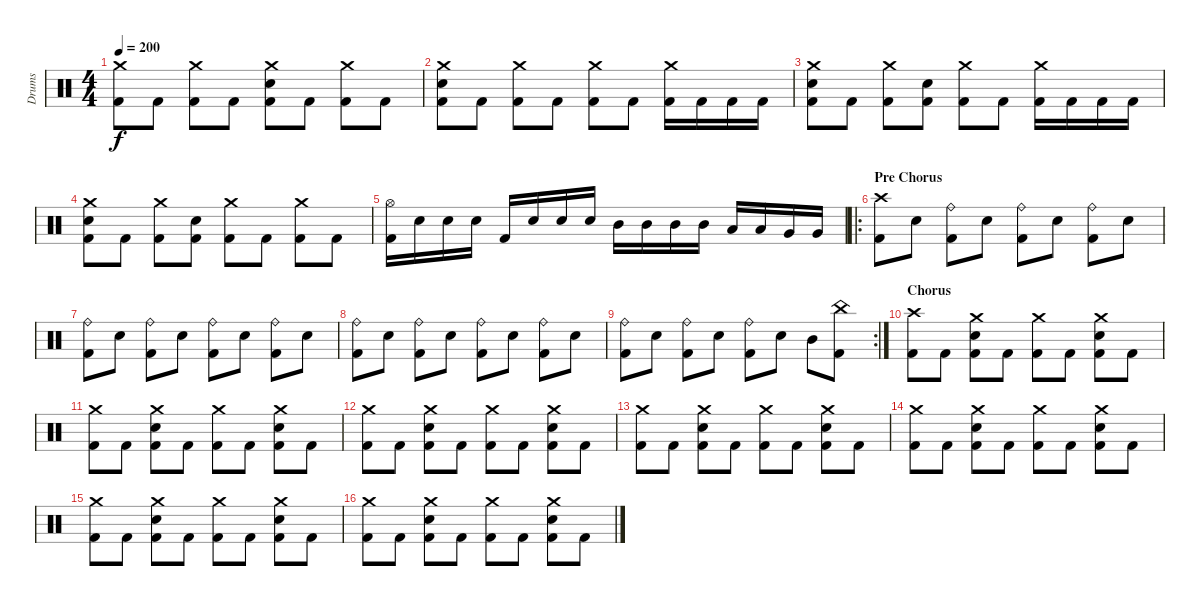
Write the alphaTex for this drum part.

\track ("Drums" "Drums") {instrument percussion}
\staff {score}
\articulation defaults
\ts (4 4)
\tempo 200
\clef neutral
\ks c
("Crash medium (hit)" "Kick (hit) 2").8{dy f} "Kick (hit) 2".8 ("Crash medium (hit)" "Kick (hit) 2").8 "Kick (hit) 2".8 ("Crash medium (hit)" "Electric Snare (hit)" "Kick (hit) 2").8 "Kick (hit) 2".8 ("Crash medium (hit)" "Kick (hit) 2").8 "Kick (hit) 2".8 |
("Crash medium (hit)" "Electric Snare (hit)" "Kick (hit) 2").8 "Kick (hit) 2".8 ("Crash medium (hit)" "Kick (hit) 2").8 "Kick (hit) 2".8 ("Crash medium (hit)" "Kick (hit) 2").8 "Kick (hit) 2".8 ("Crash medium (hit)" "Kick (hit) 2").16 "Kick (hit) 2".16 "Kick (hit) 2".16 "Kick (hit) 2".16 |
("Crash medium (hit)" "Electric Snare (hit)" "Kick (hit) 2").8 "Kick (hit) 2".8 ("Crash medium (hit)" "Kick (hit) 2").8 ("Electric Snare (hit)" "Kick (hit) 2").8 ("Crash medium (hit)" "Kick (hit) 2").8 "Kick (hit) 2".8 ("Crash medium (hit)" "Kick (hit) 2").16 "Kick (hit) 2".16 "Kick (hit) 2".16 "Kick (hit) 2".16 |
("Crash medium (hit)" "Electric Snare (hit)" "Kick (hit) 2").8 "Kick (hit) 2".8 ("Crash medium (hit)" "Kick (hit) 2").8 ("Electric Snare (hit)" "Kick (hit) 2").8 ("Crash medium (hit)" "Kick (hit) 2").8 "Kick (hit) 2".8 ("Crash medium (hit)" "Kick (hit) 2").8 "Kick (hit) 2".8 |
("Hi-Hat (open)" "Kick (hit) 2").16 "Electric Snare (hit)".16 "Electric Snare (hit)".16 "Electric Snare (hit)".16 "Kick (hit) 2".16 "Electric Snare (hit)".16 "Electric Snare (hit)".16 "Electric Snare (hit)".16 "Mid Tom (hit)".16 "Mid Tom (hit)".16 "Mid Tom (hit)".16 "Mid Tom (hit)".16 "Low Tom (hit)".16 "Low Tom (hit)".16 "Very Low Tom (hit)".16 "Very Low Tom (hit)".16 |
\ro
\section ("" "Pre Chorus")
("Crash high (hit)" "Kick (hit) 2").8 "Electric Snare (hit)".8 ("Ride (bell)" "Kick (hit) 2").8 "Electric Snare (hit)".8 ("Ride (bell)" "Kick (hit) 2").8 "Electric Snare (hit)".8 ("Ride (bell)" "Kick (hit) 2").8 "Electric Snare (hit)".8 |
("Ride (bell)" "Kick (hit) 2").8 "Electric Snare (hit)".8 ("Ride (bell)" "Kick (hit) 2").8 "Electric Snare (hit)".8 ("Ride (bell)" "Kick (hit) 2").8 "Electric Snare (hit)".8 ("Ride (bell)" "Kick (hit) 2").8 "Electric Snare (hit)".8 |
("Ride (bell)" "Kick (hit) 2").8 "Electric Snare (hit)".8 ("Ride (bell)" "Kick (hit) 2").8 "Electric Snare (hit)".8 ("Ride (bell)" "Kick (hit) 2").8 "Electric Snare (hit)".8 ("Ride (bell)" "Kick (hit) 2").8 "Electric Snare (hit)".8 |
\rc 2
("Ride (bell)" "Kick (hit) 2").8 "Electric Snare (hit)".8 ("Ride (bell)" "Kick (hit) 2").8 "Electric Snare (hit)".8 ("Ride (bell)" "Kick (hit) 2").8 "Electric Snare (hit)".8 "Mid Tom (hit)".8 ("China (hit)" "Kick (hit) 2").8 |
\section ("" "Chorus")
("Crash high (hit)" "Kick (hit) 2").8 "Kick (hit) 2".8 ("Crash medium (hit)" "Electric Snare (hit)" "Kick (hit) 2").8 "Kick (hit) 2".8 ("Crash medium (hit)" "Kick (hit) 2").8 "Kick (hit) 2".8 ("Crash medium (hit)" "Electric Snare (hit)" "Kick (hit) 2").8 "Kick (hit) 2".8 |
("Crash medium (hit)" "Kick (hit) 2").8 "Kick (hit) 2".8 ("Crash medium (hit)" "Electric Snare (hit)" "Kick (hit) 2").8 "Kick (hit) 2".8 ("Crash medium (hit)" "Kick (hit) 2").8 "Kick (hit) 2".8 ("Crash medium (hit)" "Electric Snare (hit)" "Kick (hit) 2").8 "Kick (hit) 2".8 |
("Crash medium (hit)" "Kick (hit) 2").8 "Kick (hit) 2".8 ("Crash medium (hit)" "Electric Snare (hit)" "Kick (hit) 2").8 "Kick (hit) 2".8 ("Crash medium (hit)" "Kick (hit) 2").8 "Kick (hit) 2".8 ("Crash medium (hit)" "Electric Snare (hit)" "Kick (hit) 2").8 "Kick (hit) 2".8 |
("Crash medium (hit)" "Kick (hit) 2").8 "Kick (hit) 2".8 ("Crash medium (hit)" "Electric Snare (hit)" "Kick (hit) 2").8 "Kick (hit) 2".8 ("Crash medium (hit)" "Kick (hit) 2").8 "Kick (hit) 2".8 ("Crash medium (hit)" "Electric Snare (hit)" "Kick (hit) 2").8 "Kick (hit) 2".8 |
("Crash medium (hit)" "Kick (hit) 2").8 "Kick (hit) 2".8 ("Crash medium (hit)" "Electric Snare (hit)" "Kick (hit) 2").8 "Kick (hit) 2".8 ("Crash medium (hit)" "Kick (hit) 2").8 "Kick (hit) 2".8 ("Crash medium (hit)" "Electric Snare (hit)" "Kick (hit) 2").8 "Kick (hit) 2".8 |
("Crash medium (hit)" "Kick (hit) 2").8 "Kick (hit) 2".8 ("Crash medium (hit)" "Electric Snare (hit)" "Kick (hit) 2").8 "Kick (hit) 2".8 ("Crash medium (hit)" "Kick (hit) 2").8 "Kick (hit) 2".8 ("Crash medium (hit)" "Electric Snare (hit)" "Kick (hit) 2").8 "Kick (hit) 2".8 |
("Crash medium (hit)" "Kick (hit) 2").8 "Kick (hit) 2".8 ("Crash medium (hit)" "Electric Snare (hit)" "Kick (hit) 2").8 "Kick (hit) 2".8 ("Crash medium (hit)" "Kick (hit) 2").8 "Kick (hit) 2".8 ("Crash medium (hit)" "Electric Snare (hit)" "Kick (hit) 2").8 "Kick (hit) 2".8
